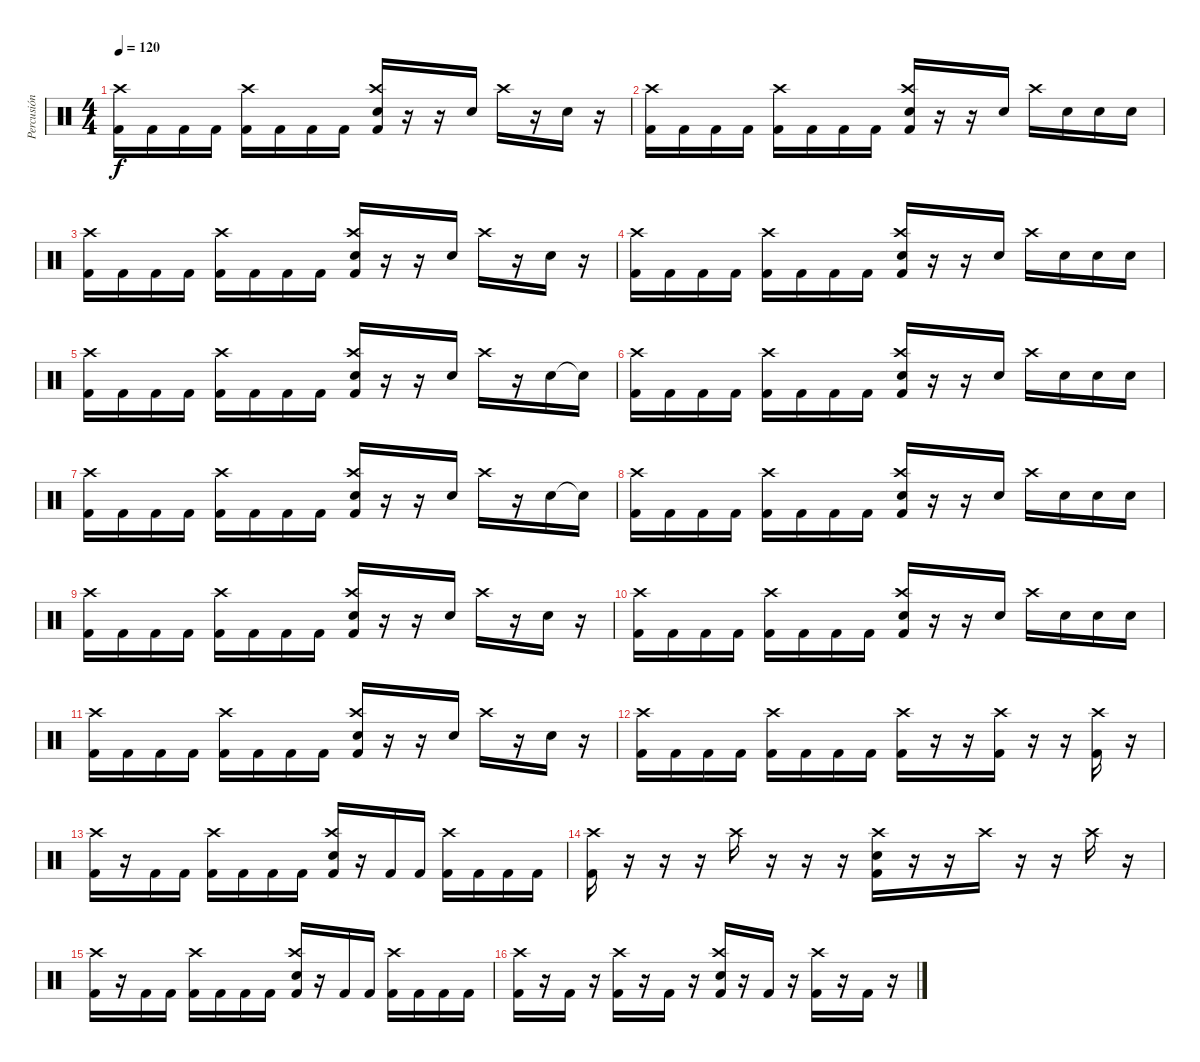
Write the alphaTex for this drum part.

\track ("Percusión" "Percusión") {instrument percussion}
\staff {score}
\articulation defaults
\ts (4 4)
\tempo 120
\clef neutral
\ks c
("Kick (hit) 2" "Crash high (hit)").16{dy f} "Kick (hit) 2".16 "Kick (hit) 2".16 "Kick (hit) 2".16 ("Kick (hit) 2" "Crash high (hit)").16 "Kick (hit) 2".16 "Kick (hit) 2".16 "Kick (hit) 2".16 ("Kick (hit) 2" "Crash high (hit)" "Electric Snare (hit)").16 r.16 r.16 "Electric Snare (hit)".16 "Crash high (hit)".16 r.16 "Electric Snare (hit)".16 r.16 |
("Kick (hit) 2" "Crash high (hit)").16 "Kick (hit) 2".16 "Kick (hit) 2".16 "Kick (hit) 2".16 ("Kick (hit) 2" "Crash high (hit)").16 "Kick (hit) 2".16 "Kick (hit) 2".16 "Kick (hit) 2".16 ("Kick (hit) 2" "Crash high (hit)" "Electric Snare (hit)").16 r.16 r.16 "Electric Snare (hit)".16 "Crash high (hit)".16 "Electric Snare (hit)".16 "Electric Snare (hit)".16 "Electric Snare (hit)".16 |
("Kick (hit) 2" "Crash high (hit)").16 "Kick (hit) 2".16 "Kick (hit) 2".16 "Kick (hit) 2".16 ("Kick (hit) 2" "Crash high (hit)").16 "Kick (hit) 2".16 "Kick (hit) 2".16 "Kick (hit) 2".16 ("Kick (hit) 2" "Crash high (hit)" "Electric Snare (hit)").16 r.16 r.16 "Electric Snare (hit)".16 "Crash high (hit)".16 r.16 "Electric Snare (hit)".16 r.16 |
("Kick (hit) 2" "Crash high (hit)").16 "Kick (hit) 2".16 "Kick (hit) 2".16 "Kick (hit) 2".16 ("Kick (hit) 2" "Crash high (hit)").16 "Kick (hit) 2".16 "Kick (hit) 2".16 "Kick (hit) 2".16 ("Kick (hit) 2" "Crash high (hit)" "Electric Snare (hit)").16 r.16 r.16 "Electric Snare (hit)".16 "Crash high (hit)".16 "Electric Snare (hit)".16 "Electric Snare (hit)".16 "Electric Snare (hit)".16 |
("Kick (hit) 2" "Crash high (hit)").16 "Kick (hit) 2".16 "Kick (hit) 2".16 "Kick (hit) 2".16 ("Kick (hit) 2" "Crash high (hit)").16 "Kick (hit) 2".16 "Kick (hit) 2".16 "Kick (hit) 2".16 ("Kick (hit) 2" "Crash high (hit)" "Electric Snare (hit)").16 r.16 r.16 "Electric Snare (hit)".16 "Crash high (hit)".16 r.16 "Electric Snare (hit)".16 "Snare (hit)"{t}.16 |
("Kick (hit) 2" "Crash high (hit)").16 "Kick (hit) 2".16 "Kick (hit) 2".16 "Kick (hit) 2".16 ("Kick (hit) 2" "Crash high (hit)").16 "Kick (hit) 2".16 "Kick (hit) 2".16 "Kick (hit) 2".16 ("Kick (hit) 2" "Crash high (hit)" "Electric Snare (hit)").16 r.16 r.16 "Electric Snare (hit)".16 "Crash high (hit)".16 "Electric Snare (hit)".16 "Electric Snare (hit)".16 "Electric Snare (hit)".16 |
("Kick (hit) 2" "Crash high (hit)").16 "Kick (hit) 2".16 "Kick (hit) 2".16 "Kick (hit) 2".16 ("Kick (hit) 2" "Crash high (hit)").16 "Kick (hit) 2".16 "Kick (hit) 2".16 "Kick (hit) 2".16 ("Kick (hit) 2" "Crash high (hit)" "Electric Snare (hit)").16 r.16 r.16 "Electric Snare (hit)".16 "Crash high (hit)".16 r.16 "Electric Snare (hit)".16 "Snare (hit)"{t}.16 |
("Kick (hit) 2" "Crash high (hit)").16 "Kick (hit) 2".16 "Kick (hit) 2".16 "Kick (hit) 2".16 ("Kick (hit) 2" "Crash high (hit)").16 "Kick (hit) 2".16 "Kick (hit) 2".16 "Kick (hit) 2".16 ("Kick (hit) 2" "Crash high (hit)" "Electric Snare (hit)").16 r.16 r.16 "Electric Snare (hit)".16 "Crash high (hit)".16 "Electric Snare (hit)".16 "Electric Snare (hit)".16 "Electric Snare (hit)".16 |
("Kick (hit) 2" "Crash high (hit)").16 "Kick (hit) 2".16 "Kick (hit) 2".16 "Kick (hit) 2".16 ("Kick (hit) 2" "Crash high (hit)").16 "Kick (hit) 2".16 "Kick (hit) 2".16 "Kick (hit) 2".16 ("Kick (hit) 2" "Crash high (hit)" "Electric Snare (hit)").16 r.16 r.16 "Electric Snare (hit)".16 "Crash high (hit)".16 r.16 "Electric Snare (hit)".16 r.16 |
("Kick (hit) 2" "Crash high (hit)").16 "Kick (hit) 2".16 "Kick (hit) 2".16 "Kick (hit) 2".16 ("Kick (hit) 2" "Crash high (hit)").16 "Kick (hit) 2".16 "Kick (hit) 2".16 "Kick (hit) 2".16 ("Kick (hit) 2" "Crash high (hit)" "Electric Snare (hit)").16 r.16 r.16 "Electric Snare (hit)".16 "Crash high (hit)".16 "Electric Snare (hit)".16 "Electric Snare (hit)".16 "Electric Snare (hit)".16 |
("Kick (hit) 2" "Crash high (hit)").16 "Kick (hit) 2".16 "Kick (hit) 2".16 "Kick (hit) 2".16 ("Kick (hit) 2" "Crash high (hit)").16 "Kick (hit) 2".16 "Kick (hit) 2".16 "Kick (hit) 2".16 ("Kick (hit) 2" "Crash high (hit)" "Electric Snare (hit)").16 r.16 r.16 "Electric Snare (hit)".16 "Crash high (hit)".16 r.16 "Electric Snare (hit)".16 r.16 |
("Kick (hit) 2" "Crash high (hit)").16 "Kick (hit) 2".16 "Kick (hit) 2".16 "Kick (hit) 2".16 ("Kick (hit) 2" "Crash high (hit)").16 "Kick (hit) 2".16 "Kick (hit) 2".16 "Kick (hit) 2".16 ("Kick (hit) 2" "Crash high (hit)").16 r.16 r.16 ("Kick (hit) 2" "Crash high (hit)").16 r.16 r.16 ("Kick (hit) 2" "Crash high (hit)").16 r.16 |
("Kick (hit) 2" "Crash high (hit)").16 r.16 "Kick (hit) 2".16 "Kick (hit) 2".16 ("Kick (hit) 2" "Crash high (hit)").16 "Kick (hit) 2".16 "Kick (hit) 2".16 "Kick (hit) 2".16 ("Kick (hit) 2" "Electric Snare (hit)" "Crash high (hit)").16 r.16 "Kick (hit) 2".16 "Kick (hit) 2".16 ("Kick (hit) 2" "Crash high (hit)").16 "Kick (hit) 2".16 "Kick (hit) 2".16 "Kick (hit) 2".16 |
("Kick (hit) 2" "Crash high (hit)").16 r.16 r.16 r.16 "Crash high (hit)".16 r.16 r.16 r.16 ("Kick (hit) 2" "Electric Snare (hit)" "Crash high (hit)").16 r.16 r.16 "Crash high (hit)".16 r.16 r.16 "Crash high (hit)".16 r.16 |
("Kick (hit) 2" "Crash high (hit)").16 r.16 "Kick (hit) 2".16 "Kick (hit) 2".16 ("Kick (hit) 2" "Crash high (hit)").16 "Kick (hit) 2".16 "Kick (hit) 2".16 "Kick (hit) 2".16 ("Kick (hit) 2" "Electric Snare (hit)" "Crash high (hit)").16 r.16 "Kick (hit) 2".16 "Kick (hit) 2".16 ("Kick (hit) 2" "Crash high (hit)").16 "Kick (hit) 2".16 "Kick (hit) 2".16 "Kick (hit) 2".16 |
("Kick (hit) 2" "Crash high (hit)").16 r.16 "Kick (hit) 2".16 r.16 ("Kick (hit) 2" "Crash high (hit)").16 r.16 "Kick (hit) 2".16 r.16 ("Kick (hit) 2" "Electric Snare (hit)" "Crash high (hit)").16 r.16 "Kick (hit) 2".16 r.16 ("Kick (hit) 2" "Crash high (hit)").16 r.16 "Kick (hit) 2".16 r.16
